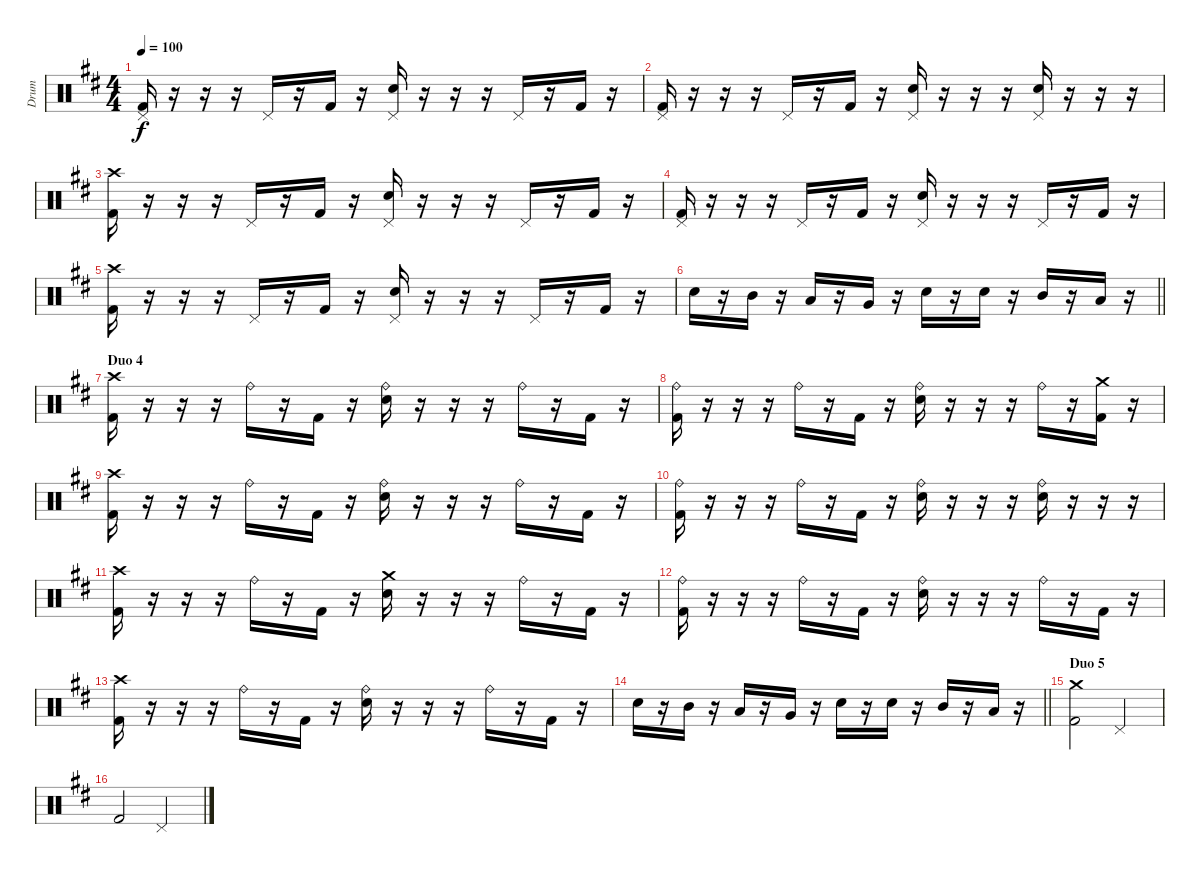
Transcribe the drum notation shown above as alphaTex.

\track ("Drum" "Drum") {instrument percussion}
\staff {score}
\articulation defaults
\ts (4 4)
\tempo 100
\clef neutral
\ks d
("Kick (hit) 2" "Pedal Hi-Hat (hit)").16{dy f} r.16 r.16 r.16 "Pedal Hi-Hat (hit)".16 r.16 "Kick (hit) 2".16 r.16 ("Electric Snare (hit)" "Pedal Hi-Hat (hit)").16 r.16 r.16 r.16 "Pedal Hi-Hat (hit)".16 r.16 "Kick (hit) 2".16 r.16 |
("Kick (hit) 2" "Pedal Hi-Hat (hit)").16 r.16 r.16 r.16 "Pedal Hi-Hat (hit)".16 r.16 "Kick (hit) 2".16 r.16 ("Electric Snare (hit)" "Pedal Hi-Hat (hit)").16 r.16 r.16 r.16 ("Electric Snare (hit)" "Pedal Hi-Hat (hit)").16 r.16 r.16 r.16 |
("Kick (hit) 2" "Crash high (hit)").16 r.16 r.16 r.16 "Pedal Hi-Hat (hit)".16 r.16 "Kick (hit) 2".16 r.16 ("Electric Snare (hit)" "Pedal Hi-Hat (hit)").16 r.16 r.16 r.16 "Pedal Hi-Hat (hit)".16 r.16 "Kick (hit) 2".16 r.16 |
("Kick (hit) 2" "Pedal Hi-Hat (hit)").16 r.16 r.16 r.16 "Pedal Hi-Hat (hit)".16 r.16 "Kick (hit) 2".16 r.16 ("Electric Snare (hit)" "Pedal Hi-Hat (hit)").16 r.16 r.16 r.16 "Pedal Hi-Hat (hit)".16 r.16 "Kick (hit) 2".16 r.16 |
("Kick (hit) 2" "Crash high (hit)").16 r.16 r.16 r.16 "Pedal Hi-Hat (hit)".16 r.16 "Kick (hit) 2".16 r.16 ("Electric Snare (hit)" "Pedal Hi-Hat (hit)").16 r.16 r.16 r.16 "Pedal Hi-Hat (hit)".16 r.16 "Kick (hit) 2".16 r.16 |
\barLineRight lightlight "Electric Snare (hit)".16
r.16 "Mid Tom (hit)".16 r.16 "Low Tom (hit)".16 r.16 "Very Low Tom (hit)".16 r.16 "Electric Snare (hit)".16 r.16 "Electric Snare (hit)".16 r.16 "Mid Tom (hit)".16 r.16 "Low Tom (hit)".16 r.16 |
\section ("" "Duo 4")
("Kick (hit) 2" "Crash high (hit)").16 r.16 r.16 r.16 "Ride (bell)".16 r.16 "Kick (hit) 2".16 r.16 ("Electric Snare (hit)" "Ride (bell)").16 r.16 r.16 r.16 "Ride (bell)".16 r.16 "Kick (hit) 2".16 r.16 |
("Kick (hit) 2" "Ride (bell)").16 r.16 r.16 r.16 "Ride (bell)".16 r.16 "Kick (hit) 2".16 r.16 ("Electric Snare (hit)" "Ride (bell)").16 r.16 r.16 r.16 "Ride (bell)".16 r.16 ("Kick (hit) 2" "Crash medium (hit)").16 r.16 |
("Kick (hit) 2" "Crash high (hit)").16 r.16 r.16 r.16 "Ride (bell)".16 r.16 "Kick (hit) 2".16 r.16 ("Electric Snare (hit)" "Ride (bell)").16 r.16 r.16 r.16 "Ride (bell)".16 r.16 "Kick (hit) 2".16 r.16 |
("Kick (hit) 2" "Ride (bell)").16 r.16 r.16 r.16 "Ride (bell)".16 r.16 "Kick (hit) 2".16 r.16 ("Electric Snare (hit)" "Ride (bell)").16 r.16 r.16 r.16 ("Electric Snare (hit)" "Ride (bell)").16 r.16 r.16 r.16 |
("Kick (hit) 2" "Crash high (hit)").16 r.16 r.16 r.16 "Ride (bell)".16 r.16 "Kick (hit) 2".16 r.16 ("Electric Snare (hit)" "Crash medium (hit)").16 r.16 r.16 r.16 "Ride (bell)".16 r.16 "Kick (hit) 2".16 r.16 |
("Kick (hit) 2" "Ride (bell)").16 r.16 r.16 r.16 "Ride (bell)".16 r.16 "Kick (hit) 2".16 r.16 ("Electric Snare (hit)" "Ride (bell)").16 r.16 r.16 r.16 "Ride (bell)".16 r.16 "Kick (hit) 2".16 r.16 |
("Kick (hit) 2" "Crash high (hit)").16 r.16 r.16 r.16 "Ride (bell)".16 r.16 "Kick (hit) 2".16 r.16 ("Electric Snare (hit)" "Ride (bell)").16 r.16 r.16 r.16 "Ride (bell)".16 r.16 "Kick (hit) 2".16 r.16 |
\barLineRight lightlight "Electric Snare (hit)".16
r.16 "Mid Tom (hit)".16 r.16 "Low Tom (hit)".16 r.16 "Very Low Tom (hit)".16 r.16 "Electric Snare (hit)".16 r.16 "Electric Snare (hit)".16 r.16 "Mid Tom (hit)".16 r.16 "Low Tom (hit)".16 r.16 |
\section ("" "Duo 5")
("Kick (hit) 2" "Crash medium (hit)").2 "Pedal Hi-Hat (hit)".2 |
"Kick (hit) 2".2 "Pedal Hi-Hat (hit)".2
